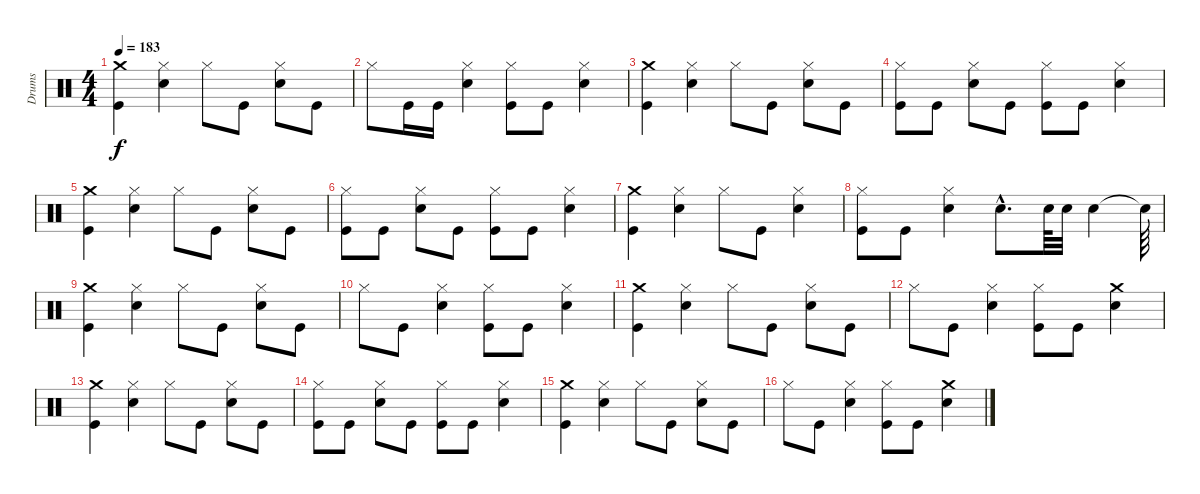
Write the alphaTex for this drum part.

\track ("Drums" "Drums") {instrument percussion}
\staff {score}
\articulation defaults
\ts (4 4)
\tempo 183
\clef neutral
\ks c
("Kick (hit)" "Crash medium (hit)").4{dy f} ("Hi-Hat (closed)" "Snare (hit) 2").4 "Hi-Hat (closed)".8 "Kick (hit)".8 ("Snare (hit) 2" "Hi-Hat (closed)").8 "Kick (hit)".8 |
"Hi-Hat (closed)".8 "Kick (hit)".16 "Kick (hit)".16 ("Snare (hit) 2" "Hi-Hat (closed)").4 ("Hi-Hat (closed)" "Kick (hit)").8 "Kick (hit)".8 ("Snare (hit) 2" "Hi-Hat (closed)").4 |
("Kick (hit)" "Crash medium (hit)").4 ("Hi-Hat (closed)" "Snare (hit) 2").4 "Hi-Hat (closed)".8 "Kick (hit)".8 ("Snare (hit) 2" "Hi-Hat (closed)").8 "Kick (hit)".8 |
("Hi-Hat (closed)" "Kick (hit)").8 "Kick (hit)".8 ("Snare (hit) 2" "Hi-Hat (closed)").8 "Kick (hit)".8 ("Hi-Hat (closed)" "Kick (hit)").8 "Kick (hit)".8 ("Snare (hit) 2" "Hi-Hat (closed)").4 |
("Kick (hit)" "Crash medium (hit)").4 ("Hi-Hat (closed)" "Snare (hit) 2").4 "Hi-Hat (closed)".8 "Kick (hit)".8 ("Snare (hit) 2" "Hi-Hat (closed)").8 "Kick (hit)".8 |
("Hi-Hat (closed)" "Kick (hit)").8 "Kick (hit)".8 ("Snare (hit) 2" "Hi-Hat (closed)").8 "Kick (hit)".8 ("Hi-Hat (closed)" "Kick (hit)").8 "Kick (hit)".8 ("Snare (hit) 2" "Hi-Hat (closed)").4 |
("Kick (hit)" "Crash medium (hit)").4 ("Snare (hit) 2" "Hi-Hat (closed)").4 "Hi-Hat (closed)".8 "Kick (hit)".8 ("Snare (hit) 2" "Hi-Hat (closed)").4 |
("Hi-Hat (closed)" "Kick (hit)").8 "Kick (hit)".8 ("Snare (hit) 2" "Hi-Hat (closed)").4 "Snare (hit) 2"{hac}.8{d} "Snare (hit) 2".64 "Snare (hit) 2".32 "Snare (hit) 2".4 "Snare (hit)"{t}.64 |
("Kick (hit)" "Crash medium (hit)").4 ("Hi-Hat (closed)" "Snare (hit) 2").4 "Hi-Hat (closed)".8 "Kick (hit)".8 ("Snare (hit) 2" "Hi-Hat (closed)").8 "Kick (hit)".8 |
"Hi-Hat (closed)".8 "Kick (hit)".8 ("Snare (hit) 2" "Hi-Hat (closed)").4 ("Hi-Hat (closed)" "Kick (hit)").8 "Kick (hit)".8 ("Snare (hit) 2" "Hi-Hat (closed)").4 |
("Kick (hit)" "Crash medium (hit)").4 ("Hi-Hat (closed)" "Snare (hit) 2").4 "Hi-Hat (closed)".8 "Kick (hit)".8 ("Snare (hit) 2" "Hi-Hat (closed)").8 "Kick (hit)".8 |
"Hi-Hat (closed)".8 "Kick (hit)".8 ("Snare (hit) 2" "Hi-Hat (closed)").4 ("Hi-Hat (closed)" "Kick (hit)").8 "Kick (hit)".8 ("Crash medium (hit)" "Snare (hit) 2").4 |
("Kick (hit)" "Crash medium (hit)").4 ("Hi-Hat (closed)" "Snare (hit) 2").4 "Hi-Hat (closed)".8 "Kick (hit)".8 ("Snare (hit) 2" "Hi-Hat (closed)").8 "Kick (hit)".8 |
("Hi-Hat (closed)" "Kick (hit)").8 "Kick (hit)".8 ("Snare (hit) 2" "Hi-Hat (closed)").8 "Kick (hit)".8 ("Hi-Hat (closed)" "Kick (hit)").8 "Kick (hit)".8 ("Snare (hit) 2" "Hi-Hat (closed)").4 |
("Kick (hit)" "Crash medium (hit)").4 ("Hi-Hat (closed)" "Snare (hit) 2").4 "Hi-Hat (closed)".8 "Kick (hit)".8 ("Snare (hit) 2" "Hi-Hat (closed)").8 "Kick (hit)".8 |
"Hi-Hat (closed)".8 "Kick (hit)".8 ("Snare (hit) 2" "Hi-Hat (closed)").4 ("Hi-Hat (closed)" "Kick (hit)").8 "Kick (hit)".8 ("Crash medium (hit)" "Snare (hit) 2").4
